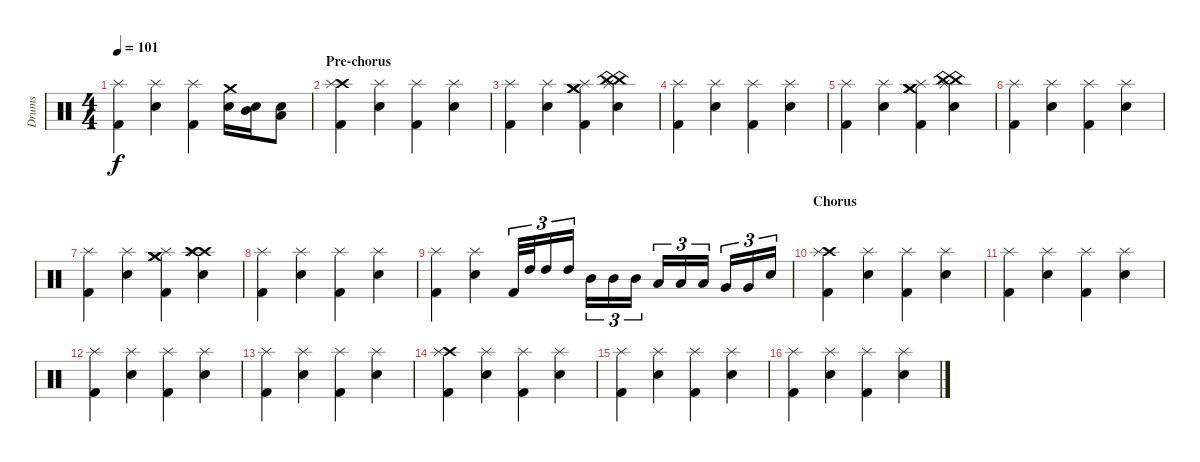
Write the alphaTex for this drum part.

\track ("Drums" "Drums") {instrument percussion}
\staff {score}
\articulation defaults
\ts (4 4)
\tempo 101
\clef neutral
\ks c
("Splash (hit)" "Kick (hit) 2").4{dy f} ("Splash (hit)" "Snare (hit) 2").4 ("Splash (hit)" "Kick (hit) 2").4 ("Crash medium (hit)" "Snare (hit) 2").16 ("Mid Tom (hit)" "Snare (hit) 2").16 ("Low Tom (hit)" "Snare (hit) 2").8 |
\section ("" "Pre-chorus")
("Crash high (hit)" "Splash (hit)" "Kick (hit) 2").4 ("Splash (hit)" "Snare (hit) 2").4 ("Splash (hit)" "Kick (hit) 2").4 ("Splash (hit)" "Snare (hit) 2").4 |
("Splash (hit)" "Kick (hit) 2").4 ("Splash (hit)" "Snare (hit) 2").4 ("Crash medium (hit)" "Crash medium (hit)" "Splash (hit)" "Kick (hit) 2").4 ("China (hit)" "China (hit)" "Splash (hit)" "Snare (hit) 2").4 |
("Splash (hit)" "Kick (hit) 2").4 ("Splash (hit)" "Snare (hit) 2").4 ("Splash (hit)" "Kick (hit) 2").4 ("Splash (hit)" "Snare (hit) 2").4 |
("Splash (hit)" "Kick (hit) 2").4 ("Splash (hit)" "Snare (hit) 2").4 ("Crash medium (hit)" "Crash medium (hit)" "Splash (hit)" "Kick (hit) 2").4 ("China (hit)" "China (hit)" "Splash (hit)" "Snare (hit) 2").4 |
("Splash (hit)" "Kick (hit) 2").4 ("Splash (hit)" "Snare (hit) 2").4 ("Splash (hit)" "Kick (hit) 2").4 ("Splash (hit)" "Snare (hit) 2").4 |
("Splash (hit)" "Kick (hit) 2").4 ("Splash (hit)" "Snare (hit) 2").4 ("Crash medium (hit)" "Crash medium (hit)" "Splash (hit)" "Kick (hit) 2").4 ("Crash high (hit)" "Crash high (hit)" "Splash (hit)" "Snare (hit) 2").4 |
("Splash (hit)" "Kick (hit) 2").4 ("Splash (hit)" "Snare (hit) 2").4 ("Splash (hit)" "Kick (hit) 2").4 ("Splash (hit)" "Snare (hit) 2").4 |
("Splash (hit)" "Kick (hit) 2").4 ("Splash (hit)" "Snare (hit) 2").4 "Kick (hit) 2".32{tu (3 2)} "High Tom (hit)".32{tu (3 2)} "High Tom (hit)".16{tu (3 2)} "High Tom (hit)".16{tu (3 2)} "Mid Tom (hit)".16{tu (3 2)} "Mid Tom (hit)".16{tu (3 2)} "Mid Tom (hit)".16{tu (3 2)} "Low Tom (hit)".16{tu (3 2)} "Low Tom (hit)".16{tu (3 2)} "Low Tom (hit)".16{tu (3 2)} "Very Low Tom (hit)".16{tu (3 2)} "Very Low Tom (hit)".16{tu (3 2)} "Snare (hit) 2".16{tu (3 2)} |
\section ("" "Chorus")
("Crash high (hit)" "Splash (hit)" "Kick (hit) 2").4 ("Splash (hit)" "Snare (hit) 2").4 ("Splash (hit)" "Kick (hit) 2").4 ("Splash (hit)" "Snare (hit) 2").4 |
("Splash (hit)" "Kick (hit) 2").4 ("Splash (hit)" "Snare (hit) 2").4 ("Splash (hit)" "Kick (hit) 2").4 ("Splash (hit)" "Snare (hit) 2").4 |
("Splash (hit)" "Kick (hit) 2").4 ("Splash (hit)" "Snare (hit) 2").4 ("Splash (hit)" "Kick (hit) 2").4 ("Splash (hit)" "Snare (hit) 2").4 |
("Splash (hit)" "Kick (hit) 2").4 ("Splash (hit)" "Snare (hit) 2").4 ("Splash (hit)" "Kick (hit) 2").4 ("Splash (hit)" "Snare (hit) 2").4 |
("Crash high (hit)" "Splash (hit)" "Kick (hit) 2").4 ("Splash (hit)" "Snare (hit) 2").4 ("Splash (hit)" "Kick (hit) 2").4 ("Splash (hit)" "Snare (hit) 2").4 |
("Splash (hit)" "Kick (hit) 2").4 ("Splash (hit)" "Snare (hit) 2").4 ("Splash (hit)" "Kick (hit) 2").4 ("Splash (hit)" "Snare (hit) 2").4 |
("Splash (hit)" "Kick (hit) 2").4 ("Splash (hit)" "Snare (hit) 2").4 ("Splash (hit)" "Kick (hit) 2").4 ("Splash (hit)" "Snare (hit) 2").4
